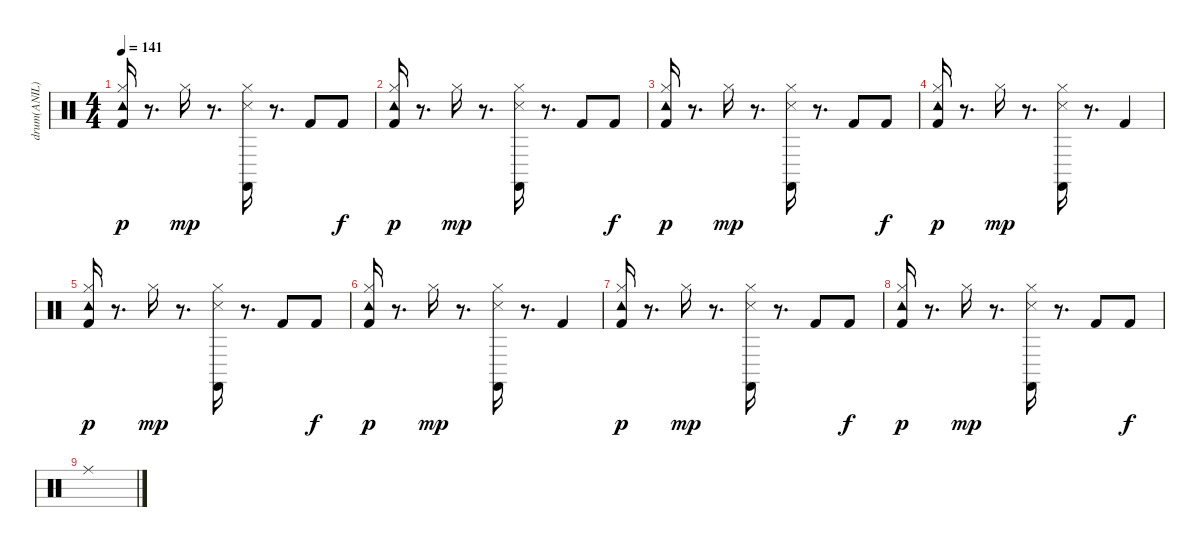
\track ("drum(ANIL)" "drum(ANIL)") {instrument percussion}
\staff {score}
\articulation defaults
\ts (4 4)
\tempo 141
\clef neutral
\ks c
("Kick (hit) 2" "Hi-Hat (closed)" "Tambourine (hit)").16{dy p} r.8{d} "Hi-Hat (closed)".16{dy mp} r.8{d} ("Castanets (hit)" "Snare (side stick) 3" "Hi-Hat (closed)").16 r.8{d} "Kick (hit) 2".8 "Kick (hit) 2".8{dy f} |
("Kick (hit) 2" "Hi-Hat (closed)" "Tambourine (hit)").16{dy p} r.8{d} "Hi-Hat (closed)".16{dy mp} r.8{d} ("Castanets (hit)" "Snare (side stick) 3" "Hi-Hat (closed)").16 r.8{d} "Kick (hit) 2".8 "Kick (hit) 2".8{dy f} |
("Kick (hit) 2" "Hi-Hat (closed)" "Tambourine (hit)").16{dy p} r.8{d} "Hi-Hat (closed)".16{dy mp} r.8{d} ("Castanets (hit)" "Snare (side stick) 3" "Hi-Hat (closed)").16 r.8{d} "Kick (hit) 2".8 "Kick (hit) 2".8{dy f} |
("Kick (hit) 2" "Hi-Hat (closed)" "Tambourine (hit)").16{dy p} r.8{d} "Hi-Hat (closed)".16{dy mp} r.8{d} ("Castanets (hit)" "Snare (side stick) 3" "Hi-Hat (closed)").16 r.8{d} "Kick (hit) 2".4 |
("Kick (hit) 2" "Hi-Hat (closed)" "Tambourine (hit)").16{dy p} r.8{d} "Hi-Hat (closed)".16{dy mp} r.8{d} ("Castanets (hit)" "Snare (side stick) 3" "Hi-Hat (closed)").16 r.8{d} "Kick (hit) 2".8 "Kick (hit) 2".8{dy f} |
("Kick (hit) 2" "Hi-Hat (closed)" "Tambourine (hit)").16{dy p} r.8{d} "Hi-Hat (closed)".16{dy mp} r.8{d} ("Castanets (hit)" "Snare (side stick) 3" "Hi-Hat (closed)").16 r.8{d} "Kick (hit) 2".4 |
("Kick (hit) 2" "Hi-Hat (closed)" "Tambourine (hit)").16{dy p} r.8{d} "Hi-Hat (closed)".16{dy mp} r.8{d} ("Castanets (hit)" "Snare (side stick) 3" "Hi-Hat (closed)").16 r.8{d} "Kick (hit) 2".8 "Kick (hit) 2".8{dy f} |
("Kick (hit) 2" "Hi-Hat (closed)" "Tambourine (hit)").16{dy p} r.8{d} "Hi-Hat (closed)".16{dy mp} r.8{d} ("Castanets (hit)" "Snare (side stick) 3" "Hi-Hat (closed)").16 r.8{d} "Kick (hit) 2".8 "Kick (hit) 2".8{dy f} |
"Ride (middle)".1
